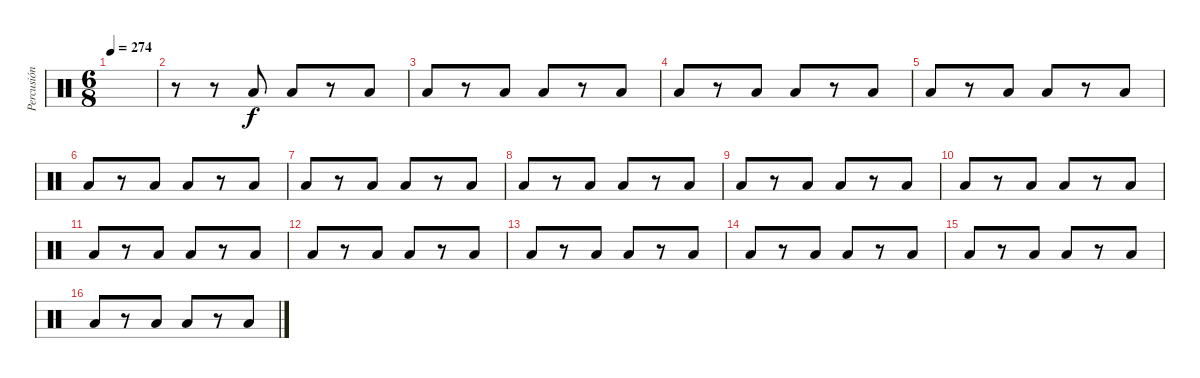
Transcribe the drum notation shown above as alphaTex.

\track ("Percusión Bastarda" "Percusión ") {instrument percussion}
\staff {score}
\articulation defaults
\ts (6 8)
\tempo 274
\clef neutral
\ks c
|
r.8 r.8 "Low Floor Tom (hit)".8 "Low Tom (hit)".8 r.8 "Low Tom (hit)".8 |
"Low Floor Tom (hit)".8 r.8 "Low Floor Tom (hit)".8 "Low Tom (hit)".8 r.8 "Low Tom (hit)".8 |
"Low Floor Tom (hit)".8 r.8 "Low Floor Tom (hit)".8 "Low Tom (hit)".8 r.8 "Low Tom (hit)".8 |
"Low Floor Tom (hit)".8 r.8 "Low Floor Tom (hit)".8 "Low Tom (hit)".8 r.8 "Low Tom (hit)".8 |
"Low Floor Tom (hit)".8 r.8 "Low Floor Tom (hit)".8 "Low Tom (hit)".8 r.8 "Low Tom (hit)".8 |
"Low Floor Tom (hit)".8 r.8 "Low Floor Tom (hit)".8 "Low Tom (hit)".8 r.8 "Low Tom (hit)".8 |
"Low Floor Tom (hit)".8 r.8 "Low Floor Tom (hit)".8 "Low Tom (hit)".8 r.8 "Low Tom (hit)".8 |
"Low Floor Tom (hit)".8 r.8 "Low Floor Tom (hit)".8 "Low Tom (hit)".8 r.8 "Low Tom (hit)".8 |
"Low Floor Tom (hit)".8 r.8 "Low Floor Tom (hit)".8 "Low Tom (hit)".8 r.8 "Low Tom (hit)".8 |
"Low Floor Tom (hit)".8 r.8 "Low Floor Tom (hit)".8 "Low Tom (hit)".8 r.8 "Low Tom (hit)".8 |
"Low Floor Tom (hit)".8 r.8 "Low Floor Tom (hit)".8 "Low Tom (hit)".8 r.8 "Low Tom (hit)".8 |
"Low Floor Tom (hit)".8 r.8 "Low Floor Tom (hit)".8 "Low Tom (hit)".8 r.8 "Low Tom (hit)".8 |
"Low Floor Tom (hit)".8 r.8 "Low Floor Tom (hit)".8 "Low Tom (hit)".8 r.8 "Low Tom (hit)".8 |
"Low Floor Tom (hit)".8 r.8 "Low Floor Tom (hit)".8 "Low Tom (hit)".8 r.8 "Low Tom (hit)".8 |
"Low Floor Tom (hit)".8 r.8 "Low Floor Tom (hit)".8 "Low Tom (hit)".8 r.8 "Low Tom (hit)".8
